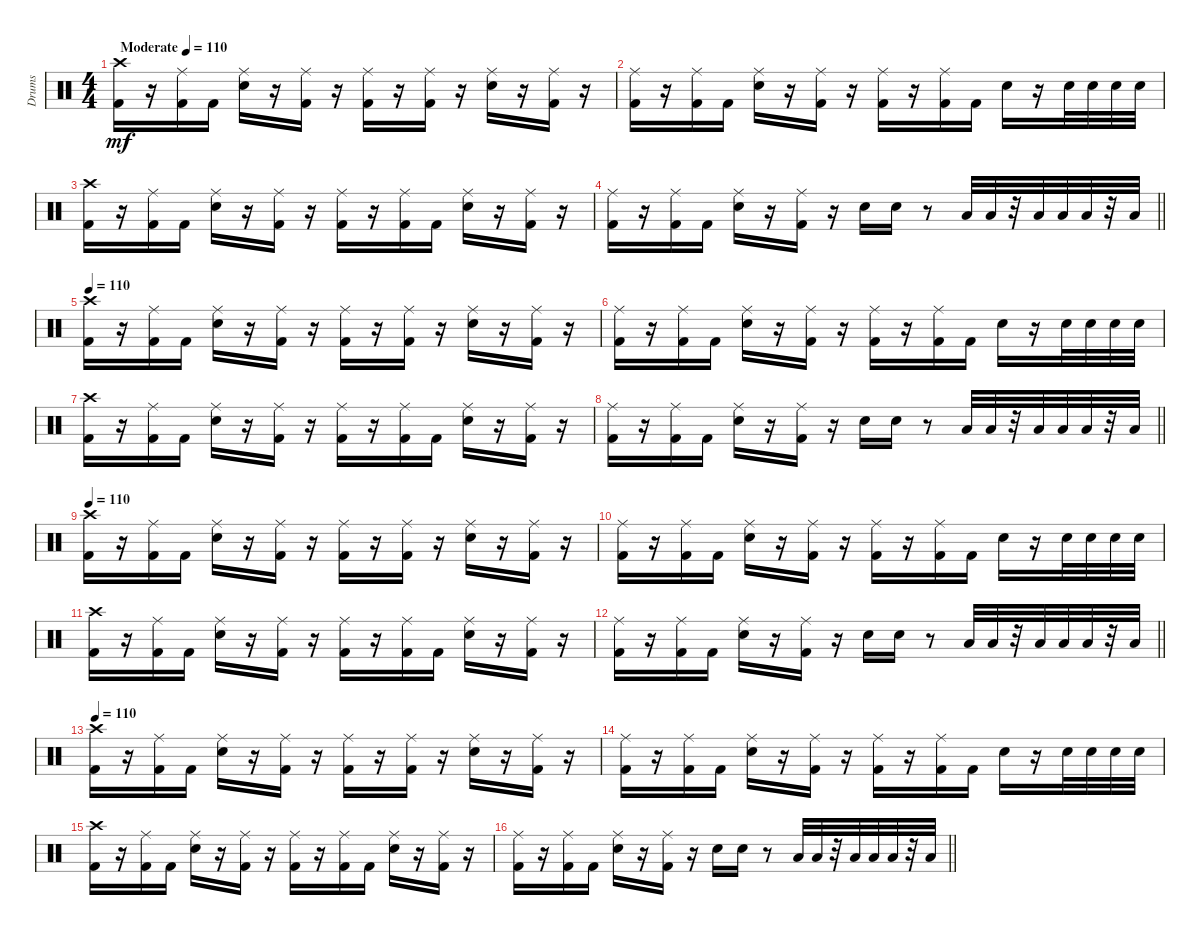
\track ("Drums" "Drums") {instrument percussion}
\staff {score}
\articulation defaults
\ts (4 4)
\tempo (110 "Moderate")
\clef neutral
\ks c
("Crash high (hit)" "Kick (hit) 2").16{dy mf} r.16 ("Kick (hit) 2" "Ride (middle)").16 "Kick (hit) 2".16 ("Snare (hit) 2" "Ride (middle)").16 r.16 ("Kick (hit) 2" "Ride (middle)").16 r.16 ("Kick (hit) 2" "Ride (middle)").16 r.16 ("Kick (hit) 2" "Ride (middle)").16 r.16 ("Snare (hit) 2" "Ride (middle)").16 r.16 ("Kick (hit) 2" "Ride (middle)").16 r.16 |
("Kick (hit) 2" "Ride (middle)").16 r.16 ("Kick (hit) 2" "Ride (middle)").16 "Kick (hit) 2".16 ("Snare (hit) 2" "Ride (middle)").16 r.16 ("Kick (hit) 2" "Ride (middle)").16 r.16 ("Kick (hit) 2" "Ride (middle)").16 r.16 ("Kick (hit) 2" "Ride (middle)").16 "Kick (hit) 2".16 "Snare (hit) 2".16 r.16 "Snare (hit) 2".32 "Snare (hit) 2".32 "Snare (hit) 2".32 "Snare (hit) 2".32 |
("Crash high (hit)" "Kick (hit) 2").16 r.16 ("Kick (hit) 2" "Ride (middle)").16 "Kick (hit) 2".16 ("Snare (hit) 2" "Ride (middle)").16 r.16 ("Kick (hit) 2" "Ride (middle)").16 r.16 ("Kick (hit) 2" "Ride (middle)").16 r.16 ("Kick (hit) 2" "Ride (middle)").16 "Kick (hit) 2".16 ("Snare (hit) 2" "Ride (middle)").16 r.16 ("Kick (hit) 2" "Ride (middle)").16 r.16 |
\barLineRight lightlight
("Kick (hit) 2" "Ride (middle)").16 r.16 ("Kick (hit) 2" "Ride (middle)").16 "Kick (hit) 2".16 ("Snare (hit) 2" "Ride (middle)").16 r.16 ("Kick (hit) 2" "Ride (middle)").16 r.16 "Snare (hit) 2".16 "Snare (hit) 2".16 r.8 "Low Tom (hit)".32 "Low Tom (hit)".32 r.32 "Low Tom (hit)".32 "Low Floor Tom (hit)".32 "Low Floor Tom (hit)".32 r.32 "Low Floor Tom (hit)".32 |
\tempo 110
("Crash high (hit)" "Kick (hit) 2").16 r.16 ("Kick (hit) 2" "Ride (middle)").16 "Kick (hit) 2".16 ("Snare (hit) 2" "Ride (middle)").16 r.16 ("Kick (hit) 2" "Ride (middle)").16 r.16 ("Kick (hit) 2" "Ride (middle)").16 r.16 ("Kick (hit) 2" "Ride (middle)").16 r.16 ("Snare (hit) 2" "Ride (middle)").16 r.16 ("Kick (hit) 2" "Ride (middle)").16 r.16 |
("Kick (hit) 2" "Ride (middle)").16 r.16 ("Kick (hit) 2" "Ride (middle)").16 "Kick (hit) 2".16 ("Snare (hit) 2" "Ride (middle)").16 r.16 ("Kick (hit) 2" "Ride (middle)").16 r.16 ("Kick (hit) 2" "Ride (middle)").16 r.16 ("Kick (hit) 2" "Ride (middle)").16 "Kick (hit) 2".16 "Snare (hit) 2".16 r.16 "Snare (hit) 2".32 "Snare (hit) 2".32 "Snare (hit) 2".32 "Snare (hit) 2".32 |
("Crash high (hit)" "Kick (hit) 2").16 r.16 ("Kick (hit) 2" "Ride (middle)").16 "Kick (hit) 2".16 ("Snare (hit) 2" "Ride (middle)").16 r.16 ("Kick (hit) 2" "Ride (middle)").16 r.16 ("Kick (hit) 2" "Ride (middle)").16 r.16 ("Kick (hit) 2" "Ride (middle)").16 "Kick (hit) 2".16 ("Snare (hit) 2" "Ride (middle)").16 r.16 ("Kick (hit) 2" "Ride (middle)").16 r.16 |
\barLineRight lightlight
("Kick (hit) 2" "Ride (middle)").16 r.16 ("Kick (hit) 2" "Ride (middle)").16 "Kick (hit) 2".16 ("Snare (hit) 2" "Ride (middle)").16 r.16 ("Kick (hit) 2" "Ride (middle)").16 r.16 "Snare (hit) 2".16 "Snare (hit) 2".16 r.8 "Low Tom (hit)".32 "Low Tom (hit)".32 r.32 "Low Tom (hit)".32 "Low Floor Tom (hit)".32 "Low Floor Tom (hit)".32 r.32 "Low Floor Tom (hit)".32 |
\tempo 110
("Crash high (hit)" "Kick (hit) 2").16 r.16 ("Kick (hit) 2" "Ride (middle)").16 "Kick (hit) 2".16 ("Snare (hit) 2" "Ride (middle)").16 r.16 ("Kick (hit) 2" "Ride (middle)").16 r.16 ("Kick (hit) 2" "Ride (middle)").16 r.16 ("Kick (hit) 2" "Ride (middle)").16 r.16 ("Snare (hit) 2" "Ride (middle)").16 r.16 ("Kick (hit) 2" "Ride (middle)").16 r.16 |
("Kick (hit) 2" "Ride (middle)").16 r.16 ("Kick (hit) 2" "Ride (middle)").16 "Kick (hit) 2".16 ("Snare (hit) 2" "Ride (middle)").16 r.16 ("Kick (hit) 2" "Ride (middle)").16 r.16 ("Kick (hit) 2" "Ride (middle)").16 r.16 ("Kick (hit) 2" "Ride (middle)").16 "Kick (hit) 2".16 "Snare (hit) 2".16 r.16 "Snare (hit) 2".32 "Snare (hit) 2".32 "Snare (hit) 2".32 "Snare (hit) 2".32 |
("Crash high (hit)" "Kick (hit) 2").16 r.16 ("Kick (hit) 2" "Ride (middle)").16 "Kick (hit) 2".16 ("Snare (hit) 2" "Ride (middle)").16 r.16 ("Kick (hit) 2" "Ride (middle)").16 r.16 ("Kick (hit) 2" "Ride (middle)").16 r.16 ("Kick (hit) 2" "Ride (middle)").16 "Kick (hit) 2".16 ("Snare (hit) 2" "Ride (middle)").16 r.16 ("Kick (hit) 2" "Ride (middle)").16 r.16 |
\barLineRight lightlight
("Kick (hit) 2" "Ride (middle)").16 r.16 ("Kick (hit) 2" "Ride (middle)").16 "Kick (hit) 2".16 ("Snare (hit) 2" "Ride (middle)").16 r.16 ("Kick (hit) 2" "Ride (middle)").16 r.16 "Snare (hit) 2".16 "Snare (hit) 2".16 r.8 "Low Tom (hit)".32 "Low Tom (hit)".32 r.32 "Low Tom (hit)".32 "Low Floor Tom (hit)".32 "Low Floor Tom (hit)".32 r.32 "Low Floor Tom (hit)".32 |
\tempo 110
("Crash high (hit)" "Kick (hit) 2").16 r.16 ("Kick (hit) 2" "Ride (middle)").16 "Kick (hit) 2".16 ("Snare (hit) 2" "Ride (middle)").16 r.16 ("Kick (hit) 2" "Ride (middle)").16 r.16 ("Kick (hit) 2" "Ride (middle)").16 r.16 ("Kick (hit) 2" "Ride (middle)").16 r.16 ("Snare (hit) 2" "Ride (middle)").16 r.16 ("Kick (hit) 2" "Ride (middle)").16 r.16 |
("Kick (hit) 2" "Ride (middle)").16 r.16 ("Kick (hit) 2" "Ride (middle)").16 "Kick (hit) 2".16 ("Snare (hit) 2" "Ride (middle)").16 r.16 ("Kick (hit) 2" "Ride (middle)").16 r.16 ("Kick (hit) 2" "Ride (middle)").16 r.16 ("Kick (hit) 2" "Ride (middle)").16 "Kick (hit) 2".16 "Snare (hit) 2".16 r.16 "Snare (hit) 2".32 "Snare (hit) 2".32 "Snare (hit) 2".32 "Snare (hit) 2".32 |
("Crash high (hit)" "Kick (hit) 2").16 r.16 ("Kick (hit) 2" "Ride (middle)").16 "Kick (hit) 2".16 ("Snare (hit) 2" "Ride (middle)").16 r.16 ("Kick (hit) 2" "Ride (middle)").16 r.16 ("Kick (hit) 2" "Ride (middle)").16 r.16 ("Kick (hit) 2" "Ride (middle)").16 "Kick (hit) 2".16 ("Snare (hit) 2" "Ride (middle)").16 r.16 ("Kick (hit) 2" "Ride (middle)").16 r.16 |
\barLineRight lightlight
("Kick (hit) 2" "Ride (middle)").16 r.16 ("Kick (hit) 2" "Ride (middle)").16 "Kick (hit) 2".16 ("Snare (hit) 2" "Ride (middle)").16 r.16 ("Kick (hit) 2" "Ride (middle)").16 r.16 "Snare (hit) 2".16 "Snare (hit) 2".16 r.8 "Low Tom (hit)".32 "Low Tom (hit)".32 r.32 "Low Tom (hit)".32 "Low Floor Tom (hit)".32 "Low Floor Tom (hit)".32 r.32 "Low Floor Tom (hit)".32
